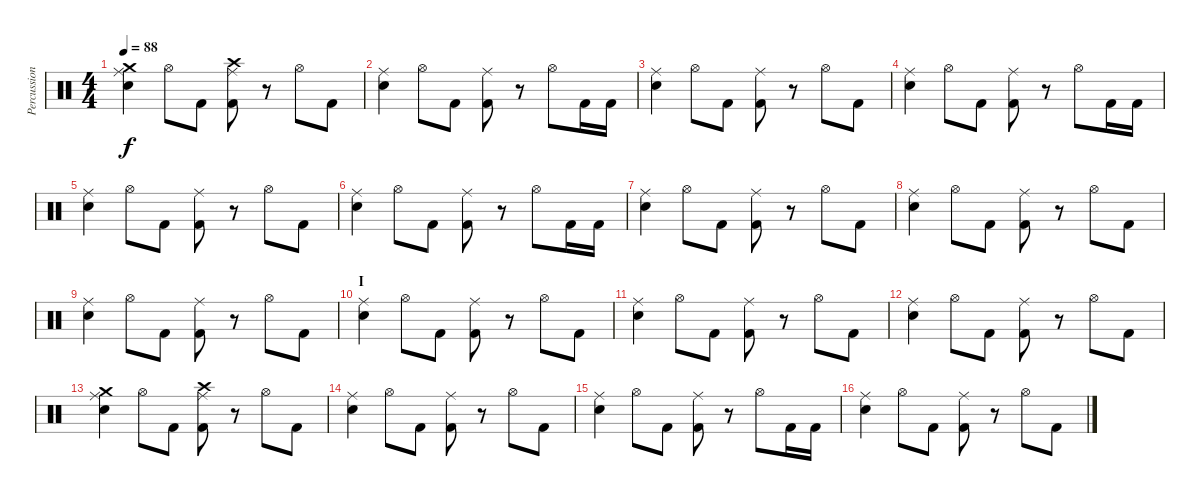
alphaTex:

\track ("Percussion" "Percussion") {instrument percussion}
\staff {score}
\articulation defaults
\ts (4 4)
\tempo 88
\clef neutral
\ks c
("Electric Snare (hit)" "Ride (middle)" "Crash medium (hit)").4{dy f} "Hi-Hat (open)".8 "Kick (hit) 2".8 ("Kick (hit) 2" "Ride (middle)" "Crash high (hit)").8 r.8 "Hi-Hat (open)".8 "Kick (hit) 2".8 |
("Electric Snare (hit)" "Ride (middle)").4 "Hi-Hat (open)".8 "Kick (hit) 2".8 ("Kick (hit) 2" "Ride (middle)").8 r.8 "Hi-Hat (open)".8 "Kick (hit) 2".16 "Kick (hit) 2".16 |
("Electric Snare (hit)" "Ride (middle)").4 "Hi-Hat (open)".8 "Kick (hit) 2".8 ("Kick (hit) 2" "Ride (middle)").8 r.8 "Hi-Hat (open)".8 "Kick (hit) 2".8 |
("Electric Snare (hit)" "Ride (middle)").4 "Hi-Hat (open)".8 "Kick (hit) 2".8 ("Kick (hit) 2" "Ride (middle)").8 r.8 "Hi-Hat (open)".8 "Kick (hit) 2".16 "Kick (hit) 2".16 |
("Electric Snare (hit)" "Ride (middle)").4 "Hi-Hat (open)".8 "Kick (hit) 2".8 ("Kick (hit) 2" "Ride (middle)").8 r.8 "Hi-Hat (open)".8 "Kick (hit) 2".8 |
("Electric Snare (hit)" "Ride (middle)").4 "Hi-Hat (open)".8 "Kick (hit) 2".8 ("Kick (hit) 2" "Ride (middle)").8 r.8 "Hi-Hat (open)".8 "Kick (hit) 2".16 "Kick (hit) 2".16 |
("Electric Snare (hit)" "Ride (middle)").4 "Hi-Hat (open)".8 "Kick (hit) 2".8 ("Kick (hit) 2" "Ride (middle)").8 r.8 "Hi-Hat (open)".8 "Kick (hit) 2".8 |
("Electric Snare (hit)" "Ride (middle)").4 "Hi-Hat (open)".8 "Kick (hit) 2".8 ("Kick (hit) 2" "Ride (middle)").8 r.8 "Hi-Hat (open)".8 "Kick (hit) 2".8 |
("Electric Snare (hit)" "Ride (middle)").4 "Hi-Hat (open)".8 "Kick (hit) 2".8 ("Kick (hit) 2" "Ride (middle)").8 r.8 "Hi-Hat (open)".8 "Kick (hit) 2".8 |
\section ("" "I")
("Electric Snare (hit)" "Ride (middle)").4 "Hi-Hat (open)".8 "Kick (hit) 2".8 ("Kick (hit) 2" "Ride (middle)").8 r.8 "Hi-Hat (open)".8 "Kick (hit) 2".8 |
("Electric Snare (hit)" "Ride (middle)").4 "Hi-Hat (open)".8 "Kick (hit) 2".8 ("Kick (hit) 2" "Ride (middle)").8 r.8 "Hi-Hat (open)".8 "Kick (hit) 2".8 |
("Electric Snare (hit)" "Ride (middle)").4 "Hi-Hat (open)".8 "Kick (hit) 2".8 ("Kick (hit) 2" "Ride (middle)").8 r.8 "Hi-Hat (open)".8 "Kick (hit) 2".8 |
("Electric Snare (hit)" "Ride (middle)" "Crash medium (hit)").4 "Hi-Hat (open)".8 "Kick (hit) 2".8 ("Kick (hit) 2" "Ride (middle)" "Crash high (hit)").8 r.8 "Hi-Hat (open)".8 "Kick (hit) 2".8 |
("Electric Snare (hit)" "Ride (middle)").4 "Hi-Hat (open)".8 "Kick (hit) 2".8 ("Kick (hit) 2" "Ride (middle)").8 r.8 "Hi-Hat (open)".8 "Kick (hit) 2".8 |
("Electric Snare (hit)" "Ride (middle)").4 "Hi-Hat (open)".8 "Kick (hit) 2".8 ("Kick (hit) 2" "Ride (middle)").8 r.8 "Hi-Hat (open)".8 "Kick (hit) 2".16 "Kick (hit) 2".16 |
("Electric Snare (hit)" "Ride (middle)").4 "Hi-Hat (open)".8 "Kick (hit) 2".8 ("Kick (hit) 2" "Ride (middle)").8 r.8 "Hi-Hat (open)".8 "Kick (hit) 2".8
